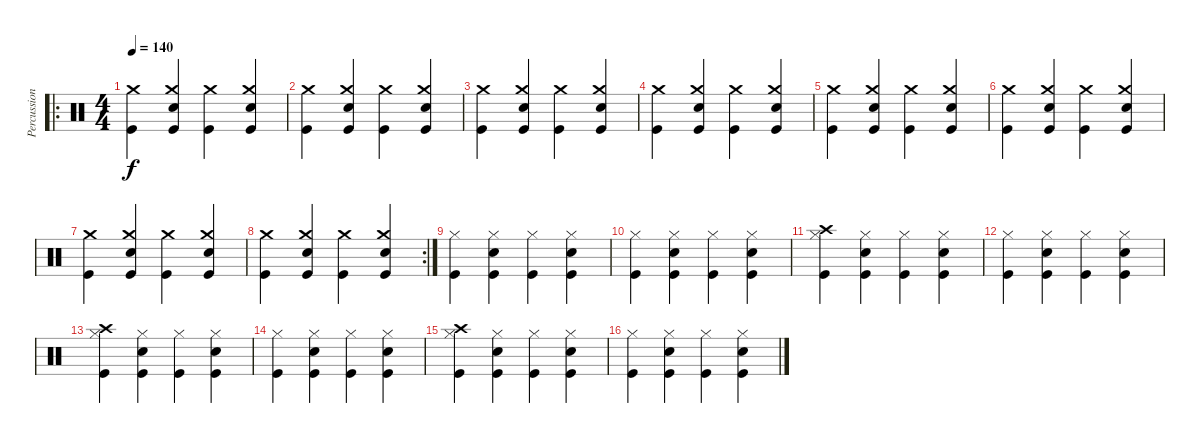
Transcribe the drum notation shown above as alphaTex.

\track ("Percussion" "Percussion") {instrument percussion}
\staff {score}
\articulation defaults
\ro
\ts (4 4)
\tempo 140
\clef neutral
\ks c
("Kick (hit)" "Crash medium (hit)").4{dy f} ("Kick (hit)" "Electric Snare (hit)" "Crash medium (hit)").4 ("Kick (hit)" "Crash medium (hit)").4 ("Kick (hit)" "Electric Snare (hit)" "Crash medium (hit)").4 |
("Kick (hit)" "Crash medium (hit)").4 ("Kick (hit)" "Electric Snare (hit)" "Crash medium (hit)").4 ("Kick (hit)" "Crash medium (hit)").4 ("Kick (hit)" "Electric Snare (hit)" "Crash medium (hit)").4 |
("Kick (hit)" "Crash medium (hit)").4 ("Kick (hit)" "Electric Snare (hit)" "Crash medium (hit)").4 ("Kick (hit)" "Crash medium (hit)").4 ("Kick (hit)" "Electric Snare (hit)" "Crash medium (hit)").4 |
("Kick (hit)" "Crash medium (hit)").4 ("Kick (hit)" "Electric Snare (hit)" "Crash medium (hit)").4 ("Kick (hit)" "Crash medium (hit)").4 ("Kick (hit)" "Electric Snare (hit)" "Crash medium (hit)").4 |
("Kick (hit)" "Crash medium (hit)").4 ("Kick (hit)" "Electric Snare (hit)" "Crash medium (hit)").4 ("Kick (hit)" "Crash medium (hit)").4 ("Kick (hit)" "Electric Snare (hit)" "Crash medium (hit)").4 |
("Kick (hit)" "Crash medium (hit)").4 ("Kick (hit)" "Electric Snare (hit)" "Crash medium (hit)").4 ("Kick (hit)" "Crash medium (hit)").4 ("Kick (hit)" "Electric Snare (hit)" "Crash medium (hit)").4 |
("Kick (hit)" "Crash medium (hit)").4 ("Kick (hit)" "Electric Snare (hit)" "Crash medium (hit)").4 ("Kick (hit)" "Crash medium (hit)").4 ("Kick (hit)" "Electric Snare (hit)" "Crash medium (hit)").4 |
\rc 2
("Kick (hit)" "Crash medium (hit)").4 ("Kick (hit)" "Electric Snare (hit)" "Crash medium (hit)").4 ("Kick (hit)" "Crash medium (hit)").4 ("Kick (hit)" "Electric Snare (hit)" "Crash medium (hit)").4 |
("Kick (hit)" "Hi-Hat (closed)").4 ("Kick (hit)" "Electric Snare (hit)" "Hi-Hat (closed)").4 ("Kick (hit)" "Hi-Hat (closed)").4 ("Kick (hit)" "Electric Snare (hit)" "Hi-Hat (closed)").4 |
("Kick (hit)" "Hi-Hat (closed)").4 ("Kick (hit)" "Electric Snare (hit)" "Hi-Hat (closed)").4 ("Kick (hit)" "Hi-Hat (closed)").4 ("Kick (hit)" "Electric Snare (hit)" "Hi-Hat (closed)").4 |
("Crash high (hit)" "Kick (hit)" "Hi-Hat (closed)").4 ("Kick (hit)" "Electric Snare (hit)" "Hi-Hat (closed)").4 ("Kick (hit)" "Hi-Hat (closed)").4 ("Kick (hit)" "Electric Snare (hit)" "Hi-Hat (closed)").4 |
("Kick (hit)" "Hi-Hat (closed)").4 ("Kick (hit)" "Electric Snare (hit)" "Hi-Hat (closed)").4 ("Kick (hit)" "Hi-Hat (closed)").4 ("Kick (hit)" "Electric Snare (hit)" "Hi-Hat (closed)").4 |
("Crash high (hit)" "Kick (hit)" "Hi-Hat (closed)").4 ("Kick (hit)" "Electric Snare (hit)" "Hi-Hat (closed)").4 ("Kick (hit)" "Hi-Hat (closed)").4 ("Kick (hit)" "Electric Snare (hit)" "Hi-Hat (closed)").4 |
("Kick (hit)" "Hi-Hat (closed)").4 ("Kick (hit)" "Electric Snare (hit)" "Hi-Hat (closed)").4 ("Kick (hit)" "Hi-Hat (closed)").4 ("Kick (hit)" "Electric Snare (hit)" "Hi-Hat (closed)").4 |
("Kick (hit)" "Crash high (hit)" "Hi-Hat (closed)").4 ("Kick (hit)" "Electric Snare (hit)" "Hi-Hat (closed)").4 ("Kick (hit)" "Hi-Hat (closed)").4 ("Kick (hit)" "Electric Snare (hit)" "Hi-Hat (closed)").4 |
("Kick (hit)" "Hi-Hat (closed)").4 ("Kick (hit)" "Electric Snare (hit)" "Hi-Hat (closed)").4 ("Kick (hit)" "Hi-Hat (closed)").4 ("Kick (hit)" "Electric Snare (hit)" "Hi-Hat (closed)").4
